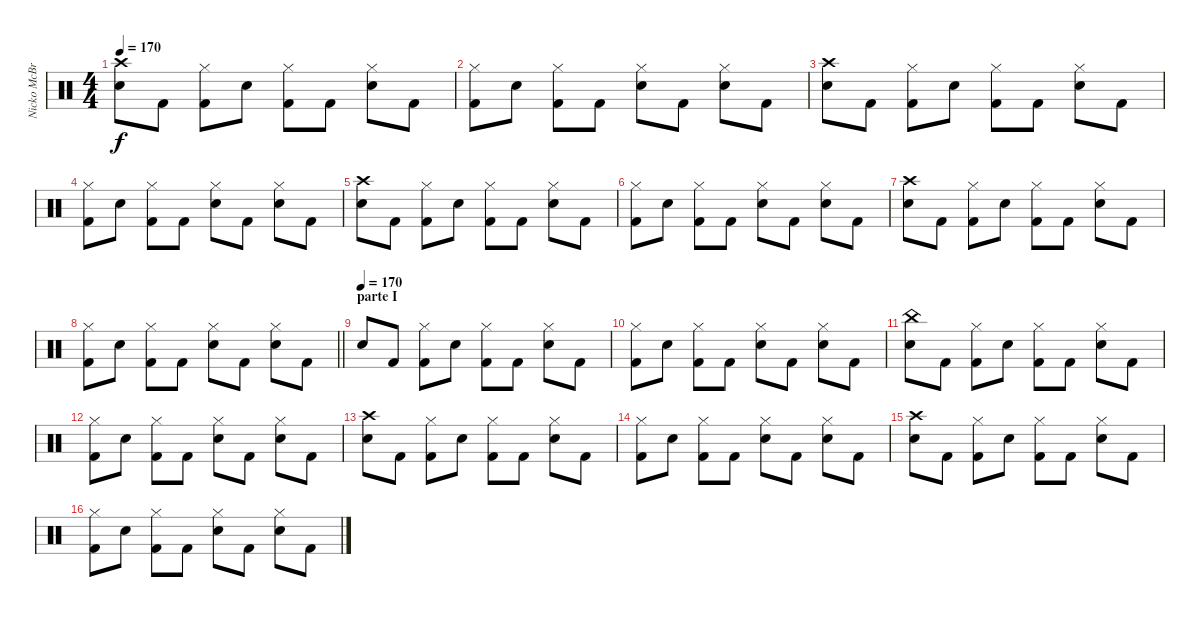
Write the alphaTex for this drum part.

\track ("Nicko McBrain" "Nicko McBr") {instrument percussion}
\staff {score}
\articulation defaults
\ts (4 4)
\tempo 170
\clef neutral
\ks c
("Crash high (hit)" "Snare (hit) 2").8{dy f} "Kick (hit) 2".8 ("Hi-Hat (closed)" "Kick (hit) 2").8 "Snare (hit) 2".8 ("Hi-Hat (closed)" "Kick (hit) 2").8 "Kick (hit) 2".8 ("Hi-Hat (closed)" "Snare (hit) 2").8 "Kick (hit) 2".8 |
("Hi-Hat (closed)" "Kick (hit) 2").8 "Snare (hit) 2".8 ("Hi-Hat (closed)" "Kick (hit) 2").8 "Kick (hit) 2".8 ("Hi-Hat (closed)" "Snare (hit) 2").8 "Kick (hit) 2".8 ("Hi-Hat (closed)" "Snare (hit) 2").8 "Kick (hit) 2".8 |
("Crash high (hit)" "Snare (hit) 2").8 "Kick (hit) 2".8 ("Hi-Hat (closed)" "Kick (hit) 2").8 "Snare (hit) 2".8 ("Hi-Hat (closed)" "Kick (hit) 2").8 "Kick (hit) 2".8 ("Hi-Hat (closed)" "Snare (hit) 2").8 "Kick (hit) 2".8 |
("Hi-Hat (closed)" "Kick (hit) 2").8 "Snare (hit) 2".8 ("Hi-Hat (closed)" "Kick (hit) 2").8 "Kick (hit) 2".8 ("Hi-Hat (closed)" "Snare (hit) 2").8 "Kick (hit) 2".8 ("Hi-Hat (closed)" "Snare (hit) 2").8 "Kick (hit) 2".8 |
("Crash high (hit)" "Snare (hit) 2").8 "Kick (hit) 2".8 ("Hi-Hat (closed)" "Kick (hit) 2").8 "Snare (hit) 2".8 ("Hi-Hat (closed)" "Kick (hit) 2").8 "Kick (hit) 2".8 ("Hi-Hat (closed)" "Snare (hit) 2").8 "Kick (hit) 2".8 |
("Hi-Hat (closed)" "Kick (hit) 2").8 "Snare (hit) 2".8 ("Hi-Hat (closed)" "Kick (hit) 2").8 "Kick (hit) 2".8 ("Hi-Hat (closed)" "Snare (hit) 2").8 "Kick (hit) 2".8 ("Hi-Hat (closed)" "Snare (hit) 2").8 "Kick (hit) 2".8 |
("Crash high (hit)" "Snare (hit) 2").8 "Kick (hit) 2".8 ("Hi-Hat (closed)" "Kick (hit) 2").8 "Snare (hit) 2".8 ("Hi-Hat (closed)" "Kick (hit) 2").8 "Kick (hit) 2".8 ("Hi-Hat (closed)" "Snare (hit) 2").8 "Kick (hit) 2".8 |
\barLineRight lightlight
("Hi-Hat (closed)" "Kick (hit) 2").8 "Snare (hit) 2".8 ("Hi-Hat (closed)" "Kick (hit) 2").8 "Kick (hit) 2".8 ("Hi-Hat (closed)" "Snare (hit) 2").8 "Kick (hit) 2".8 ("Hi-Hat (closed)" "Snare (hit) 2").8 "Kick (hit) 2".8 |
\section ("" "parte I")
\tempo 180
\tempo (170)
"Snare (hit) 2".8 "Kick (hit) 2".8 ("Hi-Hat (closed)" "Kick (hit) 2").8 "Snare (hit) 2".8 ("Hi-Hat (closed)" "Kick (hit) 2").8 "Kick (hit) 2".8 ("Hi-Hat (closed)" "Snare (hit) 2").8 "Kick (hit) 2".8 |
("Hi-Hat (closed)" "Kick (hit) 2").8 "Snare (hit) 2".8 ("Hi-Hat (closed)" "Kick (hit) 2").8 "Kick (hit) 2".8 ("Hi-Hat (closed)" "Snare (hit) 2").8 "Kick (hit) 2".8 ("Hi-Hat (closed)" "Snare (hit) 2").8 "Kick (hit) 2".8 |
("China (hit)" "Snare (hit) 2").8 "Kick (hit) 2".8 ("Hi-Hat (closed)" "Kick (hit) 2").8 "Snare (hit) 2".8 ("Hi-Hat (closed)" "Kick (hit) 2").8 "Kick (hit) 2".8 ("Hi-Hat (closed)" "Snare (hit) 2").8 "Kick (hit) 2".8 |
("Hi-Hat (closed)" "Kick (hit) 2").8 "Snare (hit) 2".8 ("Hi-Hat (closed)" "Kick (hit) 2").8 "Kick (hit) 2".8 ("Hi-Hat (closed)" "Snare (hit) 2").8 "Kick (hit) 2".8 ("Hi-Hat (closed)" "Snare (hit) 2").8 "Kick (hit) 2".8 |
("Crash high (hit)" "Snare (hit) 2").8 "Kick (hit) 2".8 ("Hi-Hat (closed)" "Kick (hit) 2").8 "Snare (hit) 2".8 ("Hi-Hat (closed)" "Kick (hit) 2").8 "Kick (hit) 2".8 ("Hi-Hat (closed)" "Snare (hit) 2").8 "Kick (hit) 2".8 |
("Hi-Hat (closed)" "Kick (hit) 2").8 "Snare (hit) 2".8 ("Hi-Hat (closed)" "Kick (hit) 2").8 "Kick (hit) 2".8 ("Hi-Hat (closed)" "Snare (hit) 2").8 "Kick (hit) 2".8 ("Hi-Hat (closed)" "Snare (hit) 2").8 "Kick (hit) 2".8 |
("Crash high (hit)" "Snare (hit) 2").8 "Kick (hit) 2".8 ("Hi-Hat (closed)" "Kick (hit) 2").8 "Snare (hit) 2".8 ("Hi-Hat (closed)" "Kick (hit) 2").8 "Kick (hit) 2".8 ("Hi-Hat (closed)" "Snare (hit) 2").8 "Kick (hit) 2".8 |
("Hi-Hat (closed)" "Kick (hit) 2").8 "Snare (hit) 2".8 ("Hi-Hat (closed)" "Kick (hit) 2").8 "Kick (hit) 2".8 ("Hi-Hat (closed)" "Snare (hit) 2").8 "Kick (hit) 2".8 ("Hi-Hat (closed)" "Snare (hit) 2").8 "Kick (hit) 2".8
